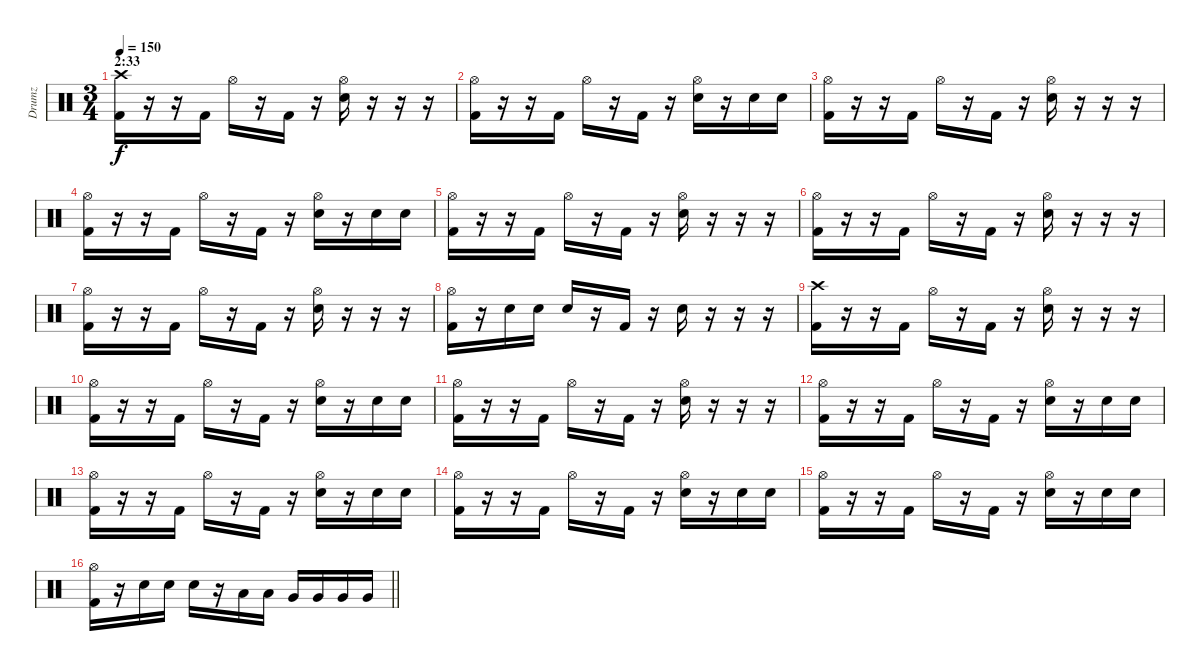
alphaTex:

\track ("Drumz" "Drumz") {instrument percussion}
\staff {score}
\articulation defaults
\ts (3 4)
\section ("" "2:33")
\tempo 150
\clef neutral
\ks c
("Crash high (hit)" "Kick (hit) 2").16{dy f} r.16 r.16 "Kick (hit) 2".16 "Hi-Hat (open)".16 r.16 "Kick (hit) 2".16 r.16 ("Hi-Hat (open)" "Electric Snare (hit)").16 r.16 r.16 r.16 |
("Hi-Hat (open)" "Kick (hit) 2").16 r.16 r.16 "Kick (hit) 2".16 "Hi-Hat (open)".16 r.16 "Kick (hit) 2".16 r.16 ("Hi-Hat (open)" "Electric Snare (hit)").16 r.16 "Electric Snare (hit)".16 "Electric Snare (hit)".16 |
("Hi-Hat (open)" "Kick (hit) 2").16 r.16 r.16 "Kick (hit) 2".16 "Hi-Hat (open)".16 r.16 "Kick (hit) 2".16 r.16 ("Hi-Hat (open)" "Electric Snare (hit)").16 r.16 r.16 r.16 |
("Hi-Hat (open)" "Kick (hit) 2").16 r.16 r.16 "Kick (hit) 2".16 "Hi-Hat (open)".16 r.16 "Kick (hit) 2".16 r.16 ("Hi-Hat (open)" "Electric Snare (hit)").16 r.16 "Electric Snare (hit)".16 "Electric Snare (hit)".16 |
("Hi-Hat (open)" "Kick (hit) 2").16 r.16 r.16 "Kick (hit) 2".16 "Hi-Hat (open)".16 r.16 "Kick (hit) 2".16 r.16 ("Hi-Hat (open)" "Electric Snare (hit)").16 r.16 r.16 r.16 |
("Hi-Hat (open)" "Kick (hit) 2").16 r.16 r.16 "Kick (hit) 2".16 "Hi-Hat (open)".16 r.16 "Kick (hit) 2".16 r.16 ("Hi-Hat (open)" "Electric Snare (hit)").16 r.16 r.16 r.16 |
("Hi-Hat (open)" "Kick (hit) 2").16 r.16 r.16 "Kick (hit) 2".16 "Hi-Hat (open)".16 r.16 "Kick (hit) 2".16 r.16 ("Hi-Hat (open)" "Electric Snare (hit)").16 r.16 r.16 r.16 |
("Hi-Hat (open)" "Kick (hit) 2").16 r.16 "Electric Snare (hit)".16 "Electric Snare (hit)".16 "Electric Snare (hit)".16 r.16 "Kick (hit) 2".16 r.16 "Electric Snare (hit)".16 r.16 r.16 r.16 |
("Crash high (hit)" "Kick (hit) 2").16 r.16 r.16 "Kick (hit) 2".16 "Hi-Hat (open)".16 r.16 "Kick (hit) 2".16 r.16 ("Hi-Hat (open)" "Electric Snare (hit)").16 r.16 r.16 r.16 |
("Hi-Hat (open)" "Kick (hit) 2").16 r.16 r.16 "Kick (hit) 2".16 "Hi-Hat (open)".16 r.16 "Kick (hit) 2".16 r.16 ("Hi-Hat (open)" "Electric Snare (hit)").16 r.16 "Electric Snare (hit)".16 "Electric Snare (hit)".16 |
("Hi-Hat (open)" "Kick (hit) 2").16 r.16 r.16 "Kick (hit) 2".16 "Hi-Hat (open)".16 r.16 "Kick (hit) 2".16 r.16 ("Hi-Hat (open)" "Electric Snare (hit)").16 r.16 r.16 r.16 |
("Hi-Hat (open)" "Kick (hit) 2").16 r.16 r.16 "Kick (hit) 2".16 "Hi-Hat (open)".16 r.16 "Kick (hit) 2".16 r.16 ("Hi-Hat (open)" "Electric Snare (hit)").16 r.16 "Electric Snare (hit)".16 "Electric Snare (hit)".16 |
("Hi-Hat (open)" "Kick (hit) 2").16 r.16 r.16 "Kick (hit) 2".16 "Hi-Hat (open)".16 r.16 "Kick (hit) 2".16 r.16 ("Hi-Hat (open)" "Electric Snare (hit)").16 r.16 "Electric Snare (hit)".16 "Electric Snare (hit)".16 |
("Hi-Hat (open)" "Kick (hit) 2").16 r.16 r.16 "Kick (hit) 2".16 "Hi-Hat (open)".16 r.16 "Kick (hit) 2".16 r.16 ("Hi-Hat (open)" "Electric Snare (hit)").16 r.16 "Electric Snare (hit)".16 "Electric Snare (hit)".16 |
("Hi-Hat (open)" "Kick (hit) 2").16 r.16 r.16 "Kick (hit) 2".16 "Hi-Hat (open)".16 r.16 "Kick (hit) 2".16 r.16 ("Hi-Hat (open)" "Electric Snare (hit)").16 r.16 "Electric Snare (hit)".16 "Electric Snare (hit)".16 |
\barLineRight lightlight
("Hi-Hat (open)" "Kick (hit) 2").16 r.16 "Electric Snare (hit)".16 "Electric Snare (hit)".16 "Electric Snare (hit)".16 r.16 "Low Tom (hit)".16 "Low Tom (hit)".16 "Very Low Tom (hit)".16 "Very Low Tom (hit)".16 "Very Low Tom (hit)".16 "Very Low Tom (hit)".16
